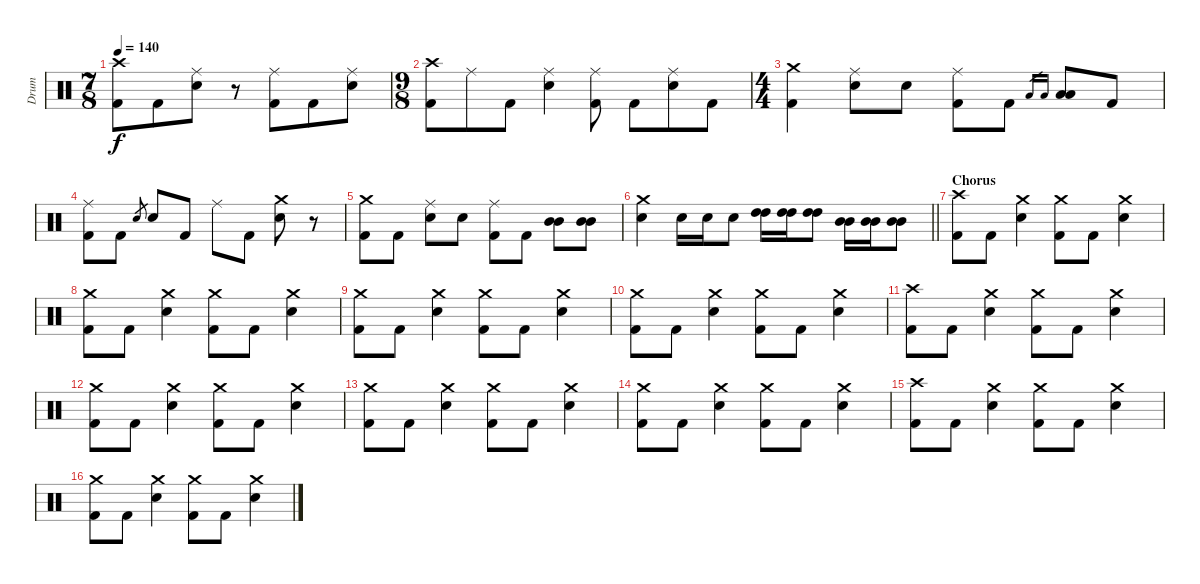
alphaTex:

\track ("Drum" "Drum") {instrument percussion}
\staff {score}
\articulation defaults
\ts (7 8)
\tempo 140
\clef neutral
\ks c
("Crash high (hit)" "Kick (hit) 2").8{dy f} "Kick (hit) 2".8 ("Ride (middle)" "Electric Snare (hit)").8 r.8 ("Ride (middle)" "Kick (hit) 2").8 "Kick (hit) 2".8 ("Ride (middle)" "Electric Snare (hit)").8 |
\ts (9 8)
("Crash high (hit)" "Kick (hit) 2").8 "Ride (middle)".8 "Kick (hit) 2".8 ("Ride (middle)" "Electric Snare (hit)").4 ("Ride (middle)" "Kick (hit) 2").8 "Kick (hit) 2".8 ("Ride (middle)" "Electric Snare (hit)").8 "Kick (hit) 2".8 |
\ts (4 4)
("Crash medium (hit)" "Kick (hit) 2").4 ("Ride (middle)" "Electric Snare (hit)").8 "Electric Snare (hit)".8 ("Ride (middle)" "Kick (hit) 2").8 "Kick (hit) 2".8 "Low Tom (hit)".16{gr} "Low Tom (hit)".16{gr} ("Low Tom (hit)" "Low Tom (hit)").8 "Kick (hit) 2".8 |
("Ride (middle)" "Kick (hit) 2").8 "Kick (hit) 2".8 "Electric Snare (hit)".8{gr} "Electric Snare (hit)".8 "Kick (hit) 2".8 "Ride (middle)".8 "Kick (hit) 2".8 ("Crash medium (hit)" "Electric Snare (hit)").8 r.8 |
("Crash medium (hit)" "Kick (hit) 2").8 "Kick (hit) 2".8 ("Ride (middle)" "Electric Snare (hit)").8 "Electric Snare (hit)".8 ("Ride (middle)" "Kick (hit) 2").8 "Kick (hit) 2".8 ("Mid Tom (hit)" "Mid Tom (hit)").8 ("Mid Tom (hit)" "Mid Tom (hit)").8 |
\barLineRight lightlight
("Crash medium (hit)" "Electric Snare (hit)").4 "Electric Snare (hit)".16 "Electric Snare (hit)".16 "Electric Snare (hit)".8 ("High Tom (hit)" "High Tom (hit)").16 ("High Tom (hit)" "High Tom (hit)").16 ("High Tom (hit)" "High Tom (hit)").8 ("Mid Tom (hit)" "Mid Tom (hit)").16 ("Mid Tom (hit)" "Mid Tom (hit)").16 ("Mid Tom (hit)" "Mid Tom (hit)").8 |
\section ("" "Chorus")
("Crash high (hit)" "Kick (hit) 2").8 "Kick (hit) 2".8 ("Crash medium (hit)" "Electric Snare (hit)").4 ("Crash medium (hit)" "Kick (hit) 2").8 "Kick (hit) 2".8 ("Crash medium (hit)" "Electric Snare (hit)").4 |
("Crash medium (hit)" "Kick (hit) 2").8 "Kick (hit) 2".8 ("Crash medium (hit)" "Electric Snare (hit)").4 ("Crash medium (hit)" "Kick (hit) 2").8 "Kick (hit) 2".8 ("Crash medium (hit)" "Electric Snare (hit)").4 |
("Crash medium (hit)" "Kick (hit) 2").8 "Kick (hit) 2".8 ("Crash medium (hit)" "Electric Snare (hit)").4 ("Crash medium (hit)" "Kick (hit) 2").8 "Kick (hit) 2".8 ("Crash medium (hit)" "Electric Snare (hit)").4 |
("Crash medium (hit)" "Kick (hit) 2").8 "Kick (hit) 2".8 ("Crash medium (hit)" "Electric Snare (hit)").4 ("Crash medium (hit)" "Kick (hit) 2").8 "Kick (hit) 2".8 ("Crash medium (hit)" "Electric Snare (hit)").4 |
("Crash high (hit)" "Kick (hit) 2").8 "Kick (hit) 2".8 ("Crash medium (hit)" "Electric Snare (hit)").4 ("Crash medium (hit)" "Kick (hit) 2").8 "Kick (hit) 2".8 ("Crash medium (hit)" "Electric Snare (hit)").4 |
("Crash medium (hit)" "Kick (hit) 2").8 "Kick (hit) 2".8 ("Crash medium (hit)" "Electric Snare (hit)").4 ("Crash medium (hit)" "Kick (hit) 2").8 "Kick (hit) 2".8 ("Crash medium (hit)" "Electric Snare (hit)").4 |
("Crash medium (hit)" "Kick (hit) 2").8 "Kick (hit) 2".8 ("Crash medium (hit)" "Electric Snare (hit)").4 ("Crash medium (hit)" "Kick (hit) 2").8 "Kick (hit) 2".8 ("Crash medium (hit)" "Electric Snare (hit)").4 |
("Crash medium (hit)" "Kick (hit) 2").8 "Kick (hit) 2".8 ("Crash medium (hit)" "Electric Snare (hit)").4 ("Crash medium (hit)" "Kick (hit) 2").8 "Kick (hit) 2".8 ("Crash medium (hit)" "Electric Snare (hit)").4 |
("Crash high (hit)" "Kick (hit) 2").8 "Kick (hit) 2".8 ("Crash medium (hit)" "Electric Snare (hit)").4 ("Crash medium (hit)" "Kick (hit) 2").8 "Kick (hit) 2".8 ("Crash medium (hit)" "Electric Snare (hit)").4 |
("Crash medium (hit)" "Kick (hit) 2").8 "Kick (hit) 2".8 ("Crash medium (hit)" "Electric Snare (hit)").4 ("Crash medium (hit)" "Kick (hit) 2").8 "Kick (hit) 2".8 ("Crash medium (hit)" "Electric Snare (hit)").4
